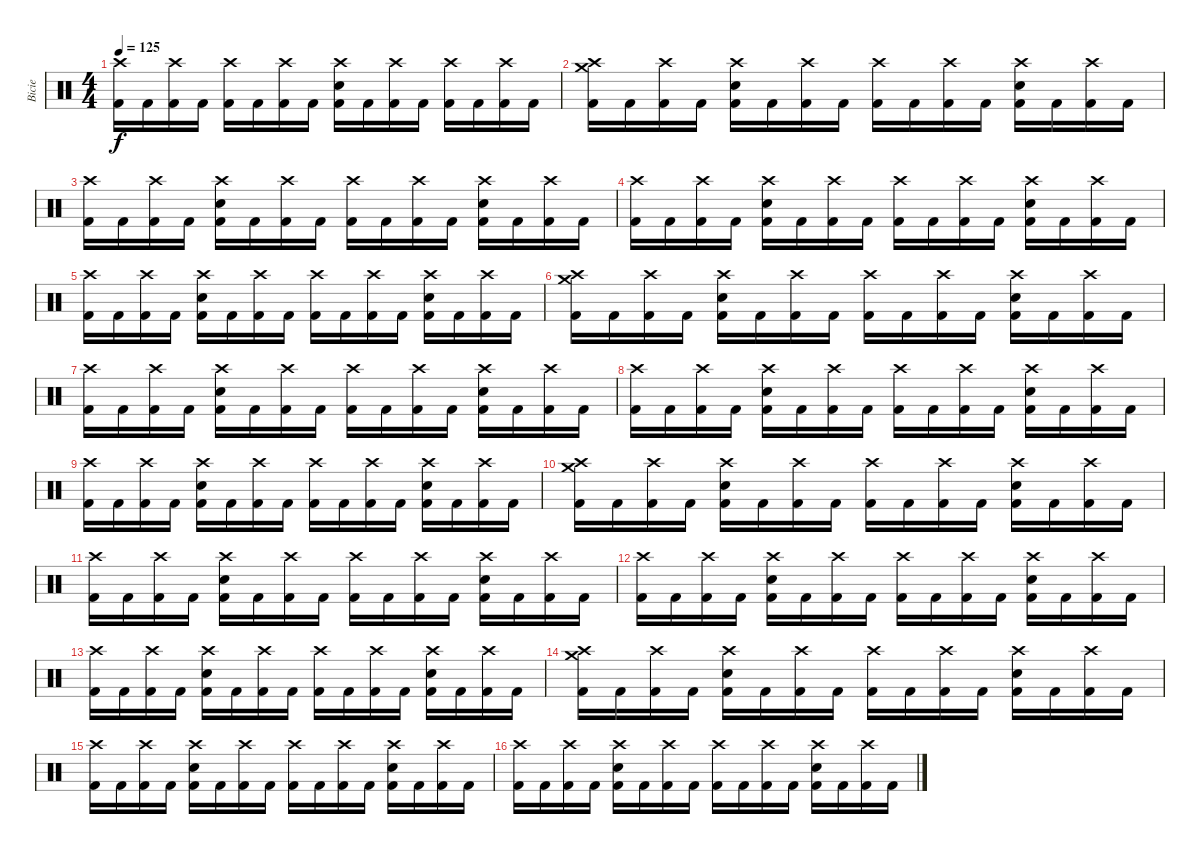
\track ("Bicie" "Bicie") {instrument percussion}
\staff {score}
\articulation defaults
\ts (4 4)
\tempo 125
\clef neutral
\ks c
("Crash high (hit)" "Kick (hit) 2").16{dy f} "Kick (hit) 2".16 ("Crash high (hit)" "Kick (hit) 2").16 "Kick (hit) 2".16 ("Crash high (hit)" "Kick (hit) 2").16 "Kick (hit) 2".16 ("Crash high (hit)" "Kick (hit) 2").16 "Kick (hit) 2".16 ("Crash high (hit)" "Snare (hit) 2" "Kick (hit) 2").16 "Kick (hit) 2".16 ("Crash high (hit)" "Kick (hit) 2").16 "Kick (hit) 2".16 ("Crash high (hit)" "Kick (hit) 2").16 "Kick (hit) 2".16 ("Crash high (hit)" "Kick (hit) 2").16 "Kick (hit) 2".16 |
("Crash high (hit)" "Crash medium (hit)" "Kick (hit) 2").16 "Kick (hit) 2".16 ("Crash high (hit)" "Kick (hit) 2").16 "Kick (hit) 2".16 ("Crash high (hit)" "Snare (hit) 2" "Kick (hit) 2").16 "Kick (hit) 2".16 ("Crash high (hit)" "Kick (hit) 2").16 "Kick (hit) 2".16 ("Crash high (hit)" "Kick (hit) 2").16 "Kick (hit) 2".16 ("Crash high (hit)" "Kick (hit) 2").16 "Kick (hit) 2".16 ("Crash high (hit)" "Snare (hit) 2" "Kick (hit) 2").16 "Kick (hit) 2".16 ("Crash high (hit)" "Kick (hit) 2").16 "Kick (hit) 2".16 |
("Crash high (hit)" "Kick (hit) 2").16 "Kick (hit) 2".16 ("Crash high (hit)" "Kick (hit) 2").16 "Kick (hit) 2".16 ("Crash high (hit)" "Snare (hit) 2" "Kick (hit) 2").16 "Kick (hit) 2".16 ("Crash high (hit)" "Kick (hit) 2").16 "Kick (hit) 2".16 ("Crash high (hit)" "Kick (hit) 2").16 "Kick (hit) 2".16 ("Crash high (hit)" "Kick (hit) 2").16 "Kick (hit) 2".16 ("Crash high (hit)" "Snare (hit) 2" "Kick (hit) 2").16 "Kick (hit) 2".16 ("Crash high (hit)" "Kick (hit) 2").16 "Kick (hit) 2".16 |
("Crash high (hit)" "Kick (hit) 2").16 "Kick (hit) 2".16 ("Crash high (hit)" "Kick (hit) 2").16 "Kick (hit) 2".16 ("Crash high (hit)" "Snare (hit) 2" "Kick (hit) 2").16 "Kick (hit) 2".16 ("Crash high (hit)" "Kick (hit) 2").16 "Kick (hit) 2".16 ("Crash high (hit)" "Kick (hit) 2").16 "Kick (hit) 2".16 ("Crash high (hit)" "Kick (hit) 2").16 "Kick (hit) 2".16 ("Crash high (hit)" "Snare (hit) 2" "Kick (hit) 2").16 "Kick (hit) 2".16 ("Crash high (hit)" "Kick (hit) 2").16 "Kick (hit) 2".16 |
("Crash high (hit)" "Kick (hit) 2").16 "Kick (hit) 2".16 ("Crash high (hit)" "Kick (hit) 2").16 "Kick (hit) 2".16 ("Crash high (hit)" "Snare (hit) 2" "Kick (hit) 2").16 "Kick (hit) 2".16 ("Crash high (hit)" "Kick (hit) 2").16 "Kick (hit) 2".16 ("Crash high (hit)" "Kick (hit) 2").16 "Kick (hit) 2".16 ("Crash high (hit)" "Kick (hit) 2").16 "Kick (hit) 2".16 ("Crash high (hit)" "Snare (hit) 2" "Kick (hit) 2").16 "Kick (hit) 2".16 ("Crash high (hit)" "Kick (hit) 2").16 "Kick (hit) 2".16 |
("Crash high (hit)" "Crash medium (hit)" "Kick (hit) 2").16 "Kick (hit) 2".16 ("Crash high (hit)" "Kick (hit) 2").16 "Kick (hit) 2".16 ("Crash high (hit)" "Snare (hit) 2" "Kick (hit) 2").16 "Kick (hit) 2".16 ("Crash high (hit)" "Kick (hit) 2").16 "Kick (hit) 2".16 ("Crash high (hit)" "Kick (hit) 2").16 "Kick (hit) 2".16 ("Crash high (hit)" "Kick (hit) 2").16 "Kick (hit) 2".16 ("Crash high (hit)" "Snare (hit) 2" "Kick (hit) 2").16 "Kick (hit) 2".16 ("Crash high (hit)" "Kick (hit) 2").16 "Kick (hit) 2".16 |
("Crash high (hit)" "Kick (hit) 2").16 "Kick (hit) 2".16 ("Crash high (hit)" "Kick (hit) 2").16 "Kick (hit) 2".16 ("Crash high (hit)" "Snare (hit) 2" "Kick (hit) 2").16 "Kick (hit) 2".16 ("Crash high (hit)" "Kick (hit) 2").16 "Kick (hit) 2".16 ("Crash high (hit)" "Kick (hit) 2").16 "Kick (hit) 2".16 ("Crash high (hit)" "Kick (hit) 2").16 "Kick (hit) 2".16 ("Crash high (hit)" "Snare (hit) 2" "Kick (hit) 2").16 "Kick (hit) 2".16 ("Crash high (hit)" "Kick (hit) 2").16 "Kick (hit) 2".16 |
("Crash high (hit)" "Kick (hit) 2").16 "Kick (hit) 2".16 ("Crash high (hit)" "Kick (hit) 2").16 "Kick (hit) 2".16 ("Crash high (hit)" "Snare (hit) 2" "Kick (hit) 2").16 "Kick (hit) 2".16 ("Crash high (hit)" "Kick (hit) 2").16 "Kick (hit) 2".16 ("Crash high (hit)" "Kick (hit) 2").16 "Kick (hit) 2".16 ("Crash high (hit)" "Kick (hit) 2").16 "Kick (hit) 2".16 ("Crash high (hit)" "Snare (hit) 2" "Kick (hit) 2").16 "Kick (hit) 2".16 ("Crash high (hit)" "Kick (hit) 2").16 "Kick (hit) 2".16 |
("Crash high (hit)" "Kick (hit) 2").16 "Kick (hit) 2".16 ("Crash high (hit)" "Kick (hit) 2").16 "Kick (hit) 2".16 ("Crash high (hit)" "Snare (hit) 2" "Kick (hit) 2").16 "Kick (hit) 2".16 ("Crash high (hit)" "Kick (hit) 2").16 "Kick (hit) 2".16 ("Crash high (hit)" "Kick (hit) 2").16 "Kick (hit) 2".16 ("Crash high (hit)" "Kick (hit) 2").16 "Kick (hit) 2".16 ("Crash high (hit)" "Snare (hit) 2" "Kick (hit) 2").16 "Kick (hit) 2".16 ("Crash high (hit)" "Kick (hit) 2").16 "Kick (hit) 2".16 |
("Crash high (hit)" "Crash medium (hit)" "Kick (hit) 2").16 "Kick (hit) 2".16 ("Crash high (hit)" "Kick (hit) 2").16 "Kick (hit) 2".16 ("Crash high (hit)" "Snare (hit) 2" "Kick (hit) 2").16 "Kick (hit) 2".16 ("Crash high (hit)" "Kick (hit) 2").16 "Kick (hit) 2".16 ("Crash high (hit)" "Kick (hit) 2").16 "Kick (hit) 2".16 ("Crash high (hit)" "Kick (hit) 2").16 "Kick (hit) 2".16 ("Crash high (hit)" "Snare (hit) 2" "Kick (hit) 2").16 "Kick (hit) 2".16 ("Crash high (hit)" "Kick (hit) 2").16 "Kick (hit) 2".16 |
("Crash high (hit)" "Kick (hit) 2").16 "Kick (hit) 2".16 ("Crash high (hit)" "Kick (hit) 2").16 "Kick (hit) 2".16 ("Crash high (hit)" "Snare (hit) 2" "Kick (hit) 2").16 "Kick (hit) 2".16 ("Crash high (hit)" "Kick (hit) 2").16 "Kick (hit) 2".16 ("Crash high (hit)" "Kick (hit) 2").16 "Kick (hit) 2".16 ("Crash high (hit)" "Kick (hit) 2").16 "Kick (hit) 2".16 ("Crash high (hit)" "Snare (hit) 2" "Kick (hit) 2").16 "Kick (hit) 2".16 ("Crash high (hit)" "Kick (hit) 2").16 "Kick (hit) 2".16 |
("Crash high (hit)" "Kick (hit) 2").16 "Kick (hit) 2".16 ("Crash high (hit)" "Kick (hit) 2").16 "Kick (hit) 2".16 ("Crash high (hit)" "Snare (hit) 2" "Kick (hit) 2").16 "Kick (hit) 2".16 ("Crash high (hit)" "Kick (hit) 2").16 "Kick (hit) 2".16 ("Crash high (hit)" "Kick (hit) 2").16 "Kick (hit) 2".16 ("Crash high (hit)" "Kick (hit) 2").16 "Kick (hit) 2".16 ("Crash high (hit)" "Snare (hit) 2" "Kick (hit) 2").16 "Kick (hit) 2".16 ("Crash high (hit)" "Kick (hit) 2").16 "Kick (hit) 2".16 |
("Crash high (hit)" "Kick (hit) 2").16 "Kick (hit) 2".16 ("Crash high (hit)" "Kick (hit) 2").16 "Kick (hit) 2".16 ("Crash high (hit)" "Snare (hit) 2" "Kick (hit) 2").16 "Kick (hit) 2".16 ("Crash high (hit)" "Kick (hit) 2").16 "Kick (hit) 2".16 ("Crash high (hit)" "Kick (hit) 2").16 "Kick (hit) 2".16 ("Crash high (hit)" "Kick (hit) 2").16 "Kick (hit) 2".16 ("Crash high (hit)" "Snare (hit) 2" "Kick (hit) 2").16 "Kick (hit) 2".16 ("Crash high (hit)" "Kick (hit) 2").16 "Kick (hit) 2".16 |
("Crash high (hit)" "Crash medium (hit)" "Kick (hit) 2").16 "Kick (hit) 2".16 ("Crash high (hit)" "Kick (hit) 2").16 "Kick (hit) 2".16 ("Crash high (hit)" "Snare (hit) 2" "Kick (hit) 2").16 "Kick (hit) 2".16 ("Crash high (hit)" "Kick (hit) 2").16 "Kick (hit) 2".16 ("Crash high (hit)" "Kick (hit) 2").16 "Kick (hit) 2".16 ("Crash high (hit)" "Kick (hit) 2").16 "Kick (hit) 2".16 ("Crash high (hit)" "Snare (hit) 2" "Kick (hit) 2").16 "Kick (hit) 2".16 ("Crash high (hit)" "Kick (hit) 2").16 "Kick (hit) 2".16 |
("Crash high (hit)" "Kick (hit) 2").16 "Kick (hit) 2".16 ("Crash high (hit)" "Kick (hit) 2").16 "Kick (hit) 2".16 ("Crash high (hit)" "Snare (hit) 2" "Kick (hit) 2").16 "Kick (hit) 2".16 ("Crash high (hit)" "Kick (hit) 2").16 "Kick (hit) 2".16 ("Crash high (hit)" "Kick (hit) 2").16 "Kick (hit) 2".16 ("Crash high (hit)" "Kick (hit) 2").16 "Kick (hit) 2".16 ("Crash high (hit)" "Snare (hit) 2" "Kick (hit) 2").16 "Kick (hit) 2".16 ("Crash high (hit)" "Kick (hit) 2").16 "Kick (hit) 2".16 |
("Crash high (hit)" "Kick (hit) 2").16 "Kick (hit) 2".16 ("Crash high (hit)" "Kick (hit) 2").16 "Kick (hit) 2".16 ("Crash high (hit)" "Snare (hit) 2" "Kick (hit) 2").16 "Kick (hit) 2".16 ("Crash high (hit)" "Kick (hit) 2").16 "Kick (hit) 2".16 ("Crash high (hit)" "Kick (hit) 2").16 "Kick (hit) 2".16 ("Crash high (hit)" "Kick (hit) 2").16 "Kick (hit) 2".16 ("Crash high (hit)" "Snare (hit) 2" "Kick (hit) 2").16 "Kick (hit) 2".16 ("Crash high (hit)" "Kick (hit) 2").16 "Kick (hit) 2".16
